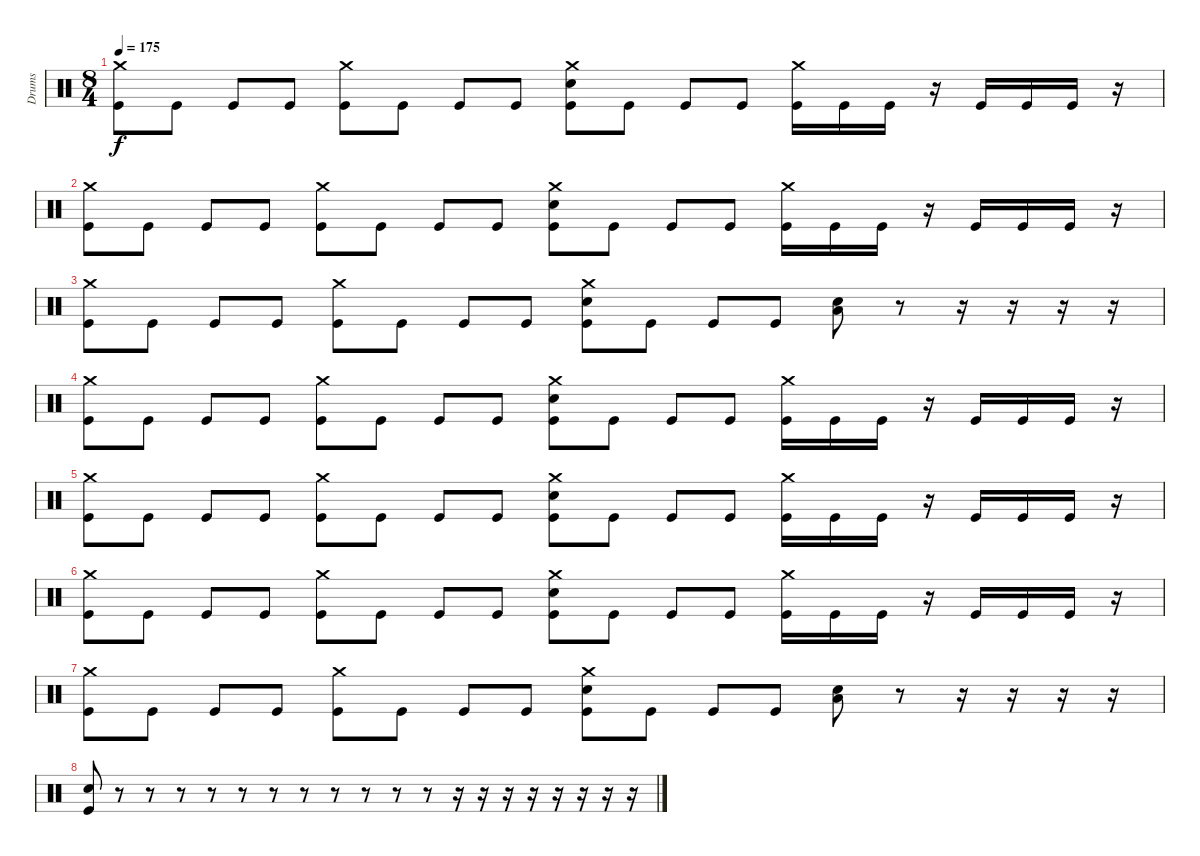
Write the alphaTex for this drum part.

\track ("Drums" "Drums") {instrument percussion}
\staff {score}
\articulation defaults
\ts (8 4)
\tempo 175
\clef neutral
\ks c
("Crash medium (hit)" "Kick (hit)").8{dy f} "Kick (hit)".8 "Kick (hit)".8 "Kick (hit)".8 ("Crash medium (hit)" "Kick (hit)").8 "Kick (hit)".8 "Kick (hit)".8 "Kick (hit)".8 ("Crash medium (hit)" "Snare (hit) 2" "Kick (hit)").8 "Kick (hit)".8 "Kick (hit)".8 "Kick (hit)".8 ("Crash medium (hit)" "Kick (hit)").16 "Kick (hit)".16 "Kick (hit)".16 r.16 "Kick (hit)".16 "Kick (hit)".16 "Kick (hit)".16 r.16 |
("Crash medium (hit)" "Kick (hit)").8 "Kick (hit)".8 "Kick (hit)".8 "Kick (hit)".8 ("Crash medium (hit)" "Kick (hit)").8 "Kick (hit)".8 "Kick (hit)".8 "Kick (hit)".8 ("Crash medium (hit)" "Snare (hit) 2" "Kick (hit)").8 "Kick (hit)".8 "Kick (hit)".8 "Kick (hit)".8 ("Crash medium (hit)" "Kick (hit)").16 "Kick (hit)".16 "Kick (hit)".16 r.16 "Kick (hit)".16 "Kick (hit)".16 "Kick (hit)".16 r.16 |
("Crash medium (hit)" "Kick (hit)").8 "Kick (hit)".8 "Kick (hit)".8 "Kick (hit)".8 ("Crash medium (hit)" "Kick (hit)").8 "Kick (hit)".8 "Kick (hit)".8 "Kick (hit)".8 ("Crash medium (hit)" "Snare (hit) 2" "Kick (hit)").8 "Kick (hit)".8 "Kick (hit)".8 "Kick (hit)".8 ("Low Floor Tom (hit)" "Snare (hit) 2").8 r.8 r.16 r.16 r.16 r.16 |
("Crash medium (hit)" "Kick (hit)").8 "Kick (hit)".8 "Kick (hit)".8 "Kick (hit)".8 ("Crash medium (hit)" "Kick (hit)").8 "Kick (hit)".8 "Kick (hit)".8 "Kick (hit)".8 ("Crash medium (hit)" "Snare (hit) 2" "Kick (hit)").8 "Kick (hit)".8 "Kick (hit)".8 "Kick (hit)".8 ("Crash medium (hit)" "Kick (hit)").16 "Kick (hit)".16 "Kick (hit)".16 r.16 "Kick (hit)".16 "Kick (hit)".16 "Kick (hit)".16 r.16 |
("Crash medium (hit)" "Kick (hit)").8 "Kick (hit)".8 "Kick (hit)".8 "Kick (hit)".8 ("Crash medium (hit)" "Kick (hit)").8 "Kick (hit)".8 "Kick (hit)".8 "Kick (hit)".8 ("Crash medium (hit)" "Snare (hit) 2" "Kick (hit)").8 "Kick (hit)".8 "Kick (hit)".8 "Kick (hit)".8 ("Crash medium (hit)" "Kick (hit)").16 "Kick (hit)".16 "Kick (hit)".16 r.16 "Kick (hit)".16 "Kick (hit)".16 "Kick (hit)".16 r.16 |
("Crash medium (hit)" "Kick (hit)").8 "Kick (hit)".8 "Kick (hit)".8 "Kick (hit)".8 ("Crash medium (hit)" "Kick (hit)").8 "Kick (hit)".8 "Kick (hit)".8 "Kick (hit)".8 ("Crash medium (hit)" "Snare (hit) 2" "Kick (hit)").8 "Kick (hit)".8 "Kick (hit)".8 "Kick (hit)".8 ("Crash medium (hit)" "Kick (hit)").16 "Kick (hit)".16 "Kick (hit)".16 r.16 "Kick (hit)".16 "Kick (hit)".16 "Kick (hit)".16 r.16 |
("Crash medium (hit)" "Kick (hit)").8 "Kick (hit)".8 "Kick (hit)".8 "Kick (hit)".8 ("Crash medium (hit)" "Kick (hit)").8 "Kick (hit)".8 "Kick (hit)".8 "Kick (hit)".8 ("Crash medium (hit)" "Snare (hit) 2" "Kick (hit)").8 "Kick (hit)".8 "Kick (hit)".8 "Kick (hit)".8 ("Low Floor Tom (hit)" "Snare (hit) 2").8 r.8 r.16 r.16 r.16 r.16 |
("Snare (hit) 2" "Kick (hit)").8 r.8 r.8 r.8 r.8 r.8 r.8 r.8 r.8 r.8 r.8 r.8 r.16 r.16 r.16 r.16 r.16 r.16 r.16 r.16
